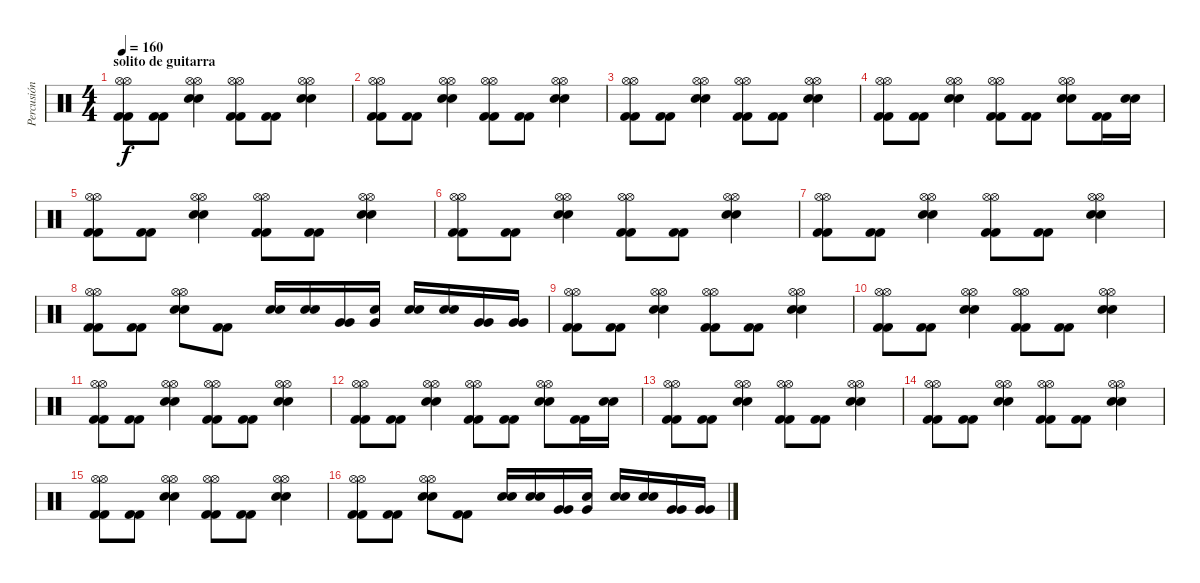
\track ("Percusión" "Percusión") {instrument percussion}
\staff {score}
\articulation defaults
\ts (4 4)
\section ("" "solito de guitarra")
\tempo 160
\clef neutral
\ks c
("Kick (hit) 2" "Kick (hit) 2" "Hi-Hat (open)" "Hi-Hat (open)").8{dy f} ("Kick (hit) 2" "Kick (hit) 2").8 ("Snare (hit) 2" "Snare (hit) 2" "Hi-Hat (open)" "Hi-Hat (open)").4 ("Kick (hit) 2" "Kick (hit) 2" "Hi-Hat (open)" "Hi-Hat (open)").8 ("Kick (hit) 2" "Kick (hit) 2").8 ("Snare (hit) 2" "Snare (hit) 2" "Hi-Hat (open)" "Hi-Hat (open)").4 |
("Kick (hit) 2" "Kick (hit) 2" "Hi-Hat (open)" "Hi-Hat (open)").8 ("Kick (hit) 2" "Kick (hit) 2").8 ("Snare (hit) 2" "Snare (hit) 2" "Hi-Hat (open)" "Hi-Hat (open)").4 ("Kick (hit) 2" "Kick (hit) 2" "Hi-Hat (open)" "Hi-Hat (open)").8 ("Kick (hit) 2" "Kick (hit) 2").8 ("Snare (hit) 2" "Snare (hit) 2" "Hi-Hat (open)" "Hi-Hat (open)").4 |
("Kick (hit) 2" "Kick (hit) 2" "Hi-Hat (open)" "Hi-Hat (open)").8 ("Kick (hit) 2" "Kick (hit) 2").8 ("Snare (hit) 2" "Snare (hit) 2" "Hi-Hat (open)" "Hi-Hat (open)").4 ("Kick (hit) 2" "Kick (hit) 2" "Hi-Hat (open)" "Hi-Hat (open)").8 ("Kick (hit) 2" "Kick (hit) 2").8 ("Snare (hit) 2" "Snare (hit) 2" "Hi-Hat (open)" "Hi-Hat (open)").4 |
("Kick (hit) 2" "Kick (hit) 2" "Hi-Hat (open)" "Hi-Hat (open)").8 ("Kick (hit) 2" "Kick (hit) 2").8 ("Snare (hit) 2" "Snare (hit) 2" "Hi-Hat (open)" "Hi-Hat (open)").4 ("Kick (hit) 2" "Kick (hit) 2" "Hi-Hat (open)" "Hi-Hat (open)").8 ("Kick (hit) 2" "Kick (hit) 2").8 ("Snare (hit) 2" "Snare (hit) 2" "Hi-Hat (open)" "Hi-Hat (open)").8 ("Kick (hit) 2" "Kick (hit) 2").16 ("Snare (hit) 2" "Snare (hit) 2").16 |
("Kick (hit) 2" "Kick (hit) 2" "Hi-Hat (open)" "Hi-Hat (open)").8 ("Kick (hit) 2" "Kick (hit) 2").8 ("Snare (hit) 2" "Snare (hit) 2" "Hi-Hat (open)" "Hi-Hat (open)").4 ("Kick (hit) 2" "Kick (hit) 2" "Hi-Hat (open)" "Hi-Hat (open)").8 ("Kick (hit) 2" "Kick (hit) 2").8 ("Snare (hit) 2" "Snare (hit) 2" "Hi-Hat (open)" "Hi-Hat (open)").4 |
("Kick (hit) 2" "Kick (hit) 2" "Hi-Hat (open)" "Hi-Hat (open)").8 ("Kick (hit) 2" "Kick (hit) 2").8 ("Snare (hit) 2" "Snare (hit) 2" "Hi-Hat (open)" "Hi-Hat (open)").4 ("Kick (hit) 2" "Kick (hit) 2" "Hi-Hat (open)" "Hi-Hat (open)").8 ("Kick (hit) 2" "Kick (hit) 2").8 ("Snare (hit) 2" "Snare (hit) 2" "Hi-Hat (open)" "Hi-Hat (open)").4 |
("Kick (hit) 2" "Kick (hit) 2" "Hi-Hat (open)" "Hi-Hat (open)").8 ("Kick (hit) 2" "Kick (hit) 2").8 ("Snare (hit) 2" "Snare (hit) 2" "Hi-Hat (open)" "Hi-Hat (open)").4 ("Kick (hit) 2" "Kick (hit) 2" "Hi-Hat (open)" "Hi-Hat (open)").8 ("Kick (hit) 2" "Kick (hit) 2").8 ("Snare (hit) 2" "Snare (hit) 2" "Hi-Hat (open)" "Hi-Hat (open)").4 |
("Kick (hit) 2" "Kick (hit) 2" "Hi-Hat (open)" "Hi-Hat (open)").8 ("Kick (hit) 2" "Kick (hit) 2").8 ("Snare (hit) 2" "Snare (hit) 2" "Hi-Hat (open)" "Hi-Hat (open)").8 ("Kick (hit) 2" "Kick (hit) 2").8 ("Snare (hit) 2" "Snare (hit) 2").16 ("Snare (hit) 2" "Snare (hit) 2").16 ("Very Low Tom (hit)" "Very Low Tom (hit)").16 ("Very Low Tom (hit)" "Metronome (bell)").16 ("Snare (hit) 2" "Snare (hit) 2").16 ("Snare (hit) 2" "Snare (hit) 2").16 ("Very Low Tom (hit)" "Very Low Tom (hit)").16 ("Very Low Tom (hit)" "Very Low Tom (hit)").16 |
("Kick (hit) 2" "Kick (hit) 2" "Hi-Hat (open)" "Hi-Hat (open)").8 ("Kick (hit) 2" "Kick (hit) 2").8 ("Snare (hit) 2" "Snare (hit) 2" "Hi-Hat (open)" "Hi-Hat (open)").4 ("Kick (hit) 2" "Kick (hit) 2" "Hi-Hat (open)" "Hi-Hat (open)").8 ("Kick (hit) 2" "Kick (hit) 2").8 ("Snare (hit) 2" "Snare (hit) 2" "Hi-Hat (open)" "Hi-Hat (open)").4 |
("Kick (hit) 2" "Kick (hit) 2" "Hi-Hat (open)" "Hi-Hat (open)").8 ("Kick (hit) 2" "Kick (hit) 2").8 ("Snare (hit) 2" "Snare (hit) 2" "Hi-Hat (open)" "Hi-Hat (open)").4 ("Kick (hit) 2" "Kick (hit) 2" "Hi-Hat (open)" "Hi-Hat (open)").8 ("Kick (hit) 2" "Kick (hit) 2").8 ("Snare (hit) 2" "Snare (hit) 2" "Hi-Hat (open)" "Hi-Hat (open)").4 |
("Kick (hit) 2" "Kick (hit) 2" "Hi-Hat (open)" "Hi-Hat (open)").8 ("Kick (hit) 2" "Kick (hit) 2").8 ("Snare (hit) 2" "Snare (hit) 2" "Hi-Hat (open)" "Hi-Hat (open)").4 ("Kick (hit) 2" "Kick (hit) 2" "Hi-Hat (open)" "Hi-Hat (open)").8 ("Kick (hit) 2" "Kick (hit) 2").8 ("Snare (hit) 2" "Snare (hit) 2" "Hi-Hat (open)" "Hi-Hat (open)").4 |
("Kick (hit) 2" "Kick (hit) 2" "Hi-Hat (open)" "Hi-Hat (open)").8 ("Kick (hit) 2" "Kick (hit) 2").8 ("Snare (hit) 2" "Snare (hit) 2" "Hi-Hat (open)" "Hi-Hat (open)").4 ("Kick (hit) 2" "Kick (hit) 2" "Hi-Hat (open)" "Hi-Hat (open)").8 ("Kick (hit) 2" "Kick (hit) 2").8 ("Snare (hit) 2" "Snare (hit) 2" "Hi-Hat (open)" "Hi-Hat (open)").8 ("Kick (hit) 2" "Kick (hit) 2").16 ("Snare (hit) 2" "Snare (hit) 2").16 |
("Kick (hit) 2" "Kick (hit) 2" "Hi-Hat (open)" "Hi-Hat (open)").8 ("Kick (hit) 2" "Kick (hit) 2").8 ("Snare (hit) 2" "Snare (hit) 2" "Hi-Hat (open)" "Hi-Hat (open)").4 ("Kick (hit) 2" "Kick (hit) 2" "Hi-Hat (open)" "Hi-Hat (open)").8 ("Kick (hit) 2" "Kick (hit) 2").8 ("Snare (hit) 2" "Snare (hit) 2" "Hi-Hat (open)" "Hi-Hat (open)").4 |
("Kick (hit) 2" "Kick (hit) 2" "Hi-Hat (open)" "Hi-Hat (open)").8 ("Kick (hit) 2" "Kick (hit) 2").8 ("Snare (hit) 2" "Snare (hit) 2" "Hi-Hat (open)" "Hi-Hat (open)").4 ("Kick (hit) 2" "Kick (hit) 2" "Hi-Hat (open)" "Hi-Hat (open)").8 ("Kick (hit) 2" "Kick (hit) 2").8 ("Snare (hit) 2" "Snare (hit) 2" "Hi-Hat (open)" "Hi-Hat (open)").4 |
("Kick (hit) 2" "Kick (hit) 2" "Hi-Hat (open)" "Hi-Hat (open)").8 ("Kick (hit) 2" "Kick (hit) 2").8 ("Snare (hit) 2" "Snare (hit) 2" "Hi-Hat (open)" "Hi-Hat (open)").4 ("Kick (hit) 2" "Kick (hit) 2" "Hi-Hat (open)" "Hi-Hat (open)").8 ("Kick (hit) 2" "Kick (hit) 2").8 ("Snare (hit) 2" "Snare (hit) 2" "Hi-Hat (open)" "Hi-Hat (open)").4 |
("Kick (hit) 2" "Kick (hit) 2" "Hi-Hat (open)" "Hi-Hat (open)").8 ("Kick (hit) 2" "Kick (hit) 2").8 ("Snare (hit) 2" "Snare (hit) 2" "Hi-Hat (open)" "Hi-Hat (open)").8 ("Kick (hit) 2" "Kick (hit) 2").8 ("Snare (hit) 2" "Snare (hit) 2").16 ("Snare (hit) 2" "Snare (hit) 2").16 ("Very Low Tom (hit)" "Very Low Tom (hit)").16 ("Very Low Tom (hit)" "Metronome (bell)").16 ("Snare (hit) 2" "Snare (hit) 2").16 ("Snare (hit) 2" "Snare (hit) 2").16 ("Very Low Tom (hit)" "Very Low Tom (hit)").16 ("Very Low Tom (hit)" "Very Low Tom (hit)").16
